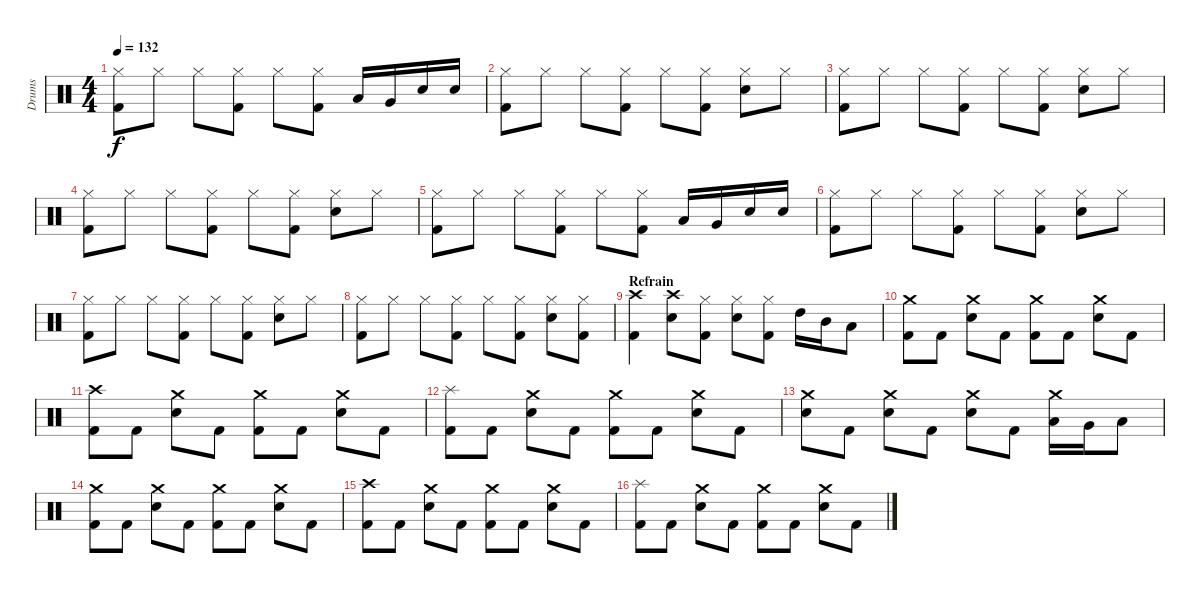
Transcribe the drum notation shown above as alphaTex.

\track ("Drums" "Drums") {instrument percussion}
\staff {score}
\articulation defaults
\ts (4 4)
\tempo 132
\clef neutral
\ks c
("Kick (hit) 2" "Hi-Hat (closed)").8{dy f} "Hi-Hat (closed)".8 "Hi-Hat (closed)".8 ("Kick (hit) 2" "Hi-Hat (closed)").8 "Hi-Hat (closed)".8 ("Kick (hit) 2" "Hi-Hat (closed)").8 "Low Tom (hit)".16 "Very Low Tom (hit)".16 "Electric Snare (hit)".16 "Electric Snare (hit)".16 |
("Kick (hit) 2" "Hi-Hat (closed)").8 "Hi-Hat (closed)".8 "Hi-Hat (closed)".8 ("Kick (hit) 2" "Hi-Hat (closed)").8 "Hi-Hat (closed)".8 ("Kick (hit) 2" "Hi-Hat (closed)").8 ("Electric Snare (hit)" "Hi-Hat (closed)").8 "Hi-Hat (closed)".8 |
("Kick (hit) 2" "Hi-Hat (closed)").8 "Hi-Hat (closed)".8 "Hi-Hat (closed)".8 ("Kick (hit) 2" "Hi-Hat (closed)").8 "Hi-Hat (closed)".8 ("Kick (hit) 2" "Hi-Hat (closed)").8 ("Electric Snare (hit)" "Hi-Hat (closed)").8 "Hi-Hat (closed)".8 |
("Kick (hit) 2" "Hi-Hat (closed)").8 "Hi-Hat (closed)".8 "Hi-Hat (closed)".8 ("Kick (hit) 2" "Hi-Hat (closed)").8 "Hi-Hat (closed)".8 ("Kick (hit) 2" "Hi-Hat (closed)").8 ("Electric Snare (hit)" "Hi-Hat (closed)").8 "Hi-Hat (closed)".8 |
("Kick (hit) 2" "Hi-Hat (closed)").8 "Hi-Hat (closed)".8 "Hi-Hat (closed)".8 ("Kick (hit) 2" "Hi-Hat (closed)").8 "Hi-Hat (closed)".8 ("Kick (hit) 2" "Hi-Hat (closed)").8 "Low Tom (hit)".16 "Very Low Tom (hit)".16 "Electric Snare (hit)".16 "Electric Snare (hit)".16 |
("Kick (hit) 2" "Hi-Hat (closed)").8 "Hi-Hat (closed)".8 "Hi-Hat (closed)".8 ("Kick (hit) 2" "Hi-Hat (closed)").8 "Hi-Hat (closed)".8 ("Kick (hit) 2" "Hi-Hat (closed)").8 ("Electric Snare (hit)" "Hi-Hat (closed)").8 "Hi-Hat (closed)".8 |
("Kick (hit) 2" "Hi-Hat (closed)").8 "Hi-Hat (closed)".8 "Hi-Hat (closed)".8 ("Kick (hit) 2" "Hi-Hat (closed)").8 "Hi-Hat (closed)".8 ("Kick (hit) 2" "Hi-Hat (closed)").8 ("Electric Snare (hit)" "Hi-Hat (closed)").8 "Hi-Hat (closed)".8 |
("Kick (hit) 2" "Hi-Hat (closed)").8 "Hi-Hat (closed)".8 "Hi-Hat (closed)".8 ("Kick (hit) 2" "Hi-Hat (closed)").8 "Hi-Hat (closed)".8 ("Kick (hit) 2" "Hi-Hat (closed)").8 ("Electric Snare (hit)" "Hi-Hat (closed)").8 ("Kick (hit) 2" "Hi-Hat (closed)").8 |
\section ("" "Refrain")
("Kick (hit) 2" "Crash high (hit)").4 ("Electric Snare (hit)" "Crash high (hit)").8 ("Kick (hit) 2" "Hi-Hat (closed)").8 ("Electric Snare (hit)" "Hi-Hat (closed)").8 ("Kick (hit) 2" "Hi-Hat (closed)").8 "High Tom (hit)".16 "Mid Tom (hit)".16 "Low Tom (hit)".8 |
("Kick (hit) 2" "Crash medium (hit)").8 "Kick (hit) 2".8 ("Electric Snare (hit)" "Crash medium (hit)").8 "Kick (hit) 2".8 ("Kick (hit) 2" "Crash medium (hit)").8 "Kick (hit) 2".8 ("Electric Snare (hit)" "Crash medium (hit)").8 "Kick (hit) 2".8 |
("Kick (hit) 2" "Crash high (hit)").8 "Kick (hit) 2".8 ("Electric Snare (hit)" "Crash medium (hit)").8 "Kick (hit) 2".8 ("Kick (hit) 2" "Crash medium (hit)").8 "Kick (hit) 2".8 ("Electric Snare (hit)" "Crash medium (hit)").8 "Kick (hit) 2".8 |
("Kick (hit) 2" "Splash (hit)").8 "Kick (hit) 2".8 ("Electric Snare (hit)" "Crash medium (hit)").8 "Kick (hit) 2".8 ("Kick (hit) 2" "Crash medium (hit)").8 "Kick (hit) 2".8 ("Electric Snare (hit)" "Crash medium (hit)").8 "Kick (hit) 2".8 |
("Electric Snare (hit)" "Crash medium (hit)").8 "Kick (hit) 2".8 ("Electric Snare (hit)" "Crash medium (hit)").8 "Kick (hit) 2".8 ("Electric Snare (hit)" "Crash medium (hit)").8 "Kick (hit) 2".8 ("Low Tom (hit)" "Crash medium (hit)").16 "Very Low Tom (hit)".16 "Low Floor Tom (hit)".8 |
("Kick (hit) 2" "Crash medium (hit)").8 "Kick (hit) 2".8 ("Electric Snare (hit)" "Crash medium (hit)").8 "Kick (hit) 2".8 ("Kick (hit) 2" "Crash medium (hit)").8 "Kick (hit) 2".8 ("Electric Snare (hit)" "Crash medium (hit)").8 "Kick (hit) 2".8 |
("Kick (hit) 2" "Crash high (hit)").8 "Kick (hit) 2".8 ("Electric Snare (hit)" "Crash medium (hit)").8 "Kick (hit) 2".8 ("Kick (hit) 2" "Crash medium (hit)").8 "Kick (hit) 2".8 ("Electric Snare (hit)" "Crash medium (hit)").8 "Kick (hit) 2".8 |
("Kick (hit) 2" "Splash (hit)").8 "Kick (hit) 2".8 ("Electric Snare (hit)" "Crash medium (hit)").8 "Kick (hit) 2".8 ("Kick (hit) 2" "Crash medium (hit)").8 "Kick (hit) 2".8 ("Electric Snare (hit)" "Crash medium (hit)").8 "Kick (hit) 2".8
